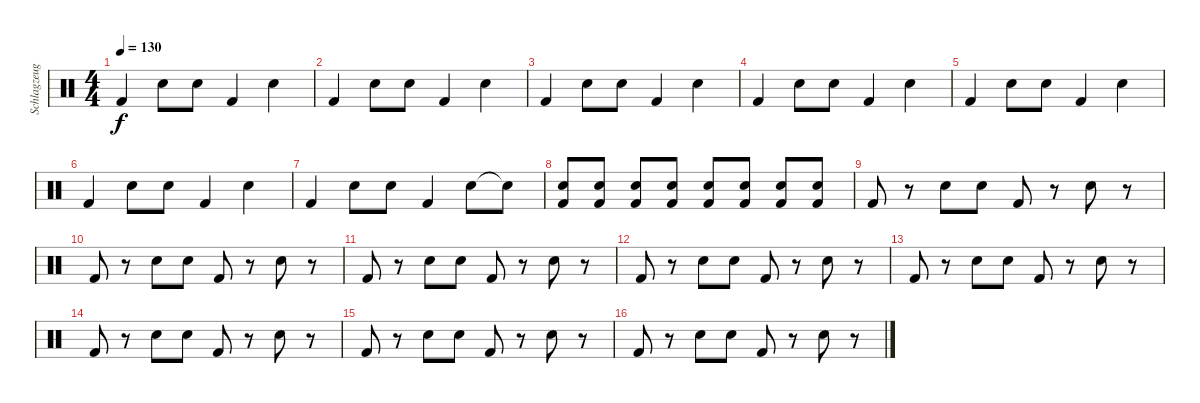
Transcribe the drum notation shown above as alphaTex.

\track ("Schlagzeug" "Schlagzeug") {instrument percussion}
\staff {score}
\articulation defaults
\ts (4 4)
\tempo 130
\clef neutral
\ks c "Kick (hit) 2".4{dy f} "Snare (hit) 2".8 "Snare (hit) 2".8 "Kick (hit) 2".4 "Snare (hit) 2".4
|
"Kick (hit) 2".4 "Snare (hit) 2".8 "Snare (hit) 2".8 "Kick (hit) 2".4 "Snare (hit) 2".4 |
"Kick (hit) 2".4 "Snare (hit) 2".8 "Snare (hit) 2".8 "Kick (hit) 2".4 "Snare (hit) 2".4 |
"Kick (hit) 2".4 "Snare (hit) 2".8 "Snare (hit) 2".8 "Kick (hit) 2".4 "Snare (hit) 2".4 |
"Kick (hit) 2".4 "Snare (hit) 2".8 "Snare (hit) 2".8 "Kick (hit) 2".4 "Snare (hit) 2".4 |
"Kick (hit) 2".4 "Snare (hit) 2".8 "Snare (hit) 2".8 "Kick (hit) 2".4 "Snare (hit) 2".4 |
"Kick (hit) 2".4 "Snare (hit) 2".8 "Snare (hit) 2".8 "Kick (hit) 2".4 "Snare (hit) 2".8 "Snare (hit)"{t}.8 |
("Snare (hit) 2" "Kick (hit) 2").8 ("Snare (hit) 2" "Kick (hit) 2").8 ("Snare (hit) 2" "Kick (hit) 2").8 ("Snare (hit) 2" "Kick (hit) 2").8 ("Snare (hit) 2" "Kick (hit) 2").8 ("Snare (hit) 2" "Kick (hit) 2").8 ("Snare (hit) 2" "Kick (hit) 2").8 ("Snare (hit) 2" "Kick (hit) 2").8 |
"Kick (hit) 2".8 r.8 "Snare (hit) 2".8 "Snare (hit) 2".8 "Kick (hit) 2".8 r.8 "Snare (hit) 2".8 r.8 |
"Kick (hit) 2".8 r.8 "Snare (hit) 2".8 "Snare (hit) 2".8 "Kick (hit) 2".8 r.8 "Snare (hit) 2".8 r.8 |
"Kick (hit) 2".8 r.8 "Snare (hit) 2".8 "Snare (hit) 2".8 "Kick (hit) 2".8 r.8 "Snare (hit) 2".8 r.8 |
"Kick (hit) 2".8 r.8 "Snare (hit) 2".8 "Snare (hit) 2".8 "Kick (hit) 2".8 r.8 "Snare (hit) 2".8 r.8 |
"Kick (hit) 2".8 r.8 "Snare (hit) 2".8 "Snare (hit) 2".8 "Kick (hit) 2".8 r.8 "Snare (hit) 2".8 r.8 |
"Kick (hit) 2".8 r.8 "Snare (hit) 2".8 "Snare (hit) 2".8 "Kick (hit) 2".8 r.8 "Snare (hit) 2".8 r.8 |
"Kick (hit) 2".8 r.8 "Snare (hit) 2".8 "Snare (hit) 2".8 "Kick (hit) 2".8 r.8 "Snare (hit) 2".8 r.8 |
"Kick (hit) 2".8 r.8 "Snare (hit) 2".8 "Snare (hit) 2".8 "Kick (hit) 2".8 r.8 "Snare (hit) 2".8 r.8
